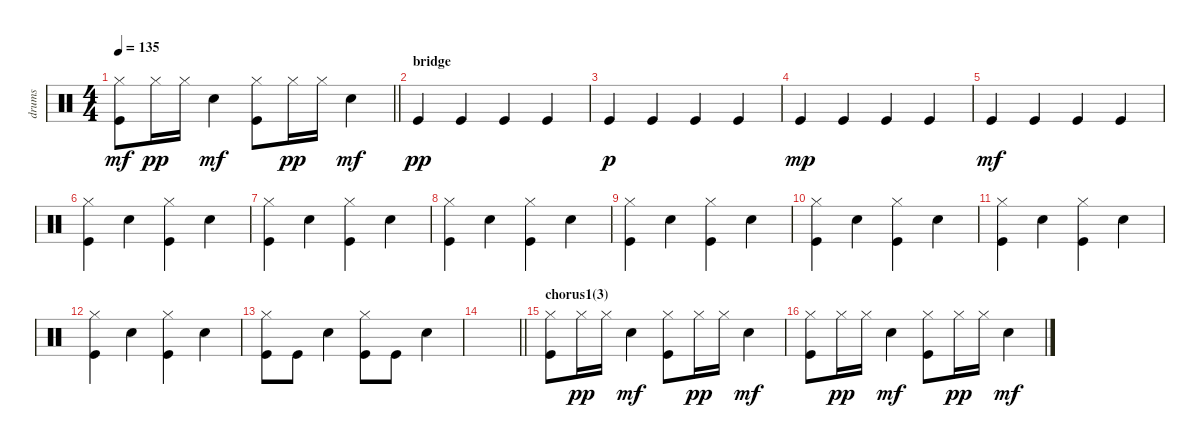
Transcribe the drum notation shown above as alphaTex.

\track ("drums" "drums") {instrument percussion}
\staff {score}
\articulation defaults
\ts (4 4)
\tempo 135
\clef neutral
\barLineRight lightlight
\ks c
("Hi-Hat (closed)" "Kick (hit)").8{dy mf} "Hi-Hat (closed)".16{dy pp} "Hi-Hat (closed)".16 "Snare (hit) 2".4{dy mf} ("Hi-Hat (closed)" "Kick (hit)").8 "Hi-Hat (closed)".16{dy pp} "Hi-Hat (closed)".16 "Snare (hit) 2".4{dy mf} |
\section ("" "bridge")
"Kick (hit)".4{dy pp} "Kick (hit)".4 "Kick (hit)".4 "Kick (hit)".4 |
"Kick (hit)".4{dy p} "Kick (hit)".4 "Kick (hit)".4 "Kick (hit)".4 |
"Kick (hit)".4{dy mp} "Kick (hit)".4 "Kick (hit)".4 "Kick (hit)".4 |
"Kick (hit)".4{dy mf} "Kick (hit)".4 "Kick (hit)".4 "Kick (hit)".4 |
("Hi-Hat (closed)" "Kick (hit)").4 "Snare (hit) 2".4 ("Hi-Hat (closed)" "Kick (hit)").4 "Snare (hit) 2".4 |
("Hi-Hat (closed)" "Kick (hit)").4 "Snare (hit) 2".4 ("Hi-Hat (closed)" "Kick (hit)").4 "Snare (hit) 2".4 |
("Hi-Hat (closed)" "Kick (hit)").4 "Snare (hit) 2".4 ("Hi-Hat (closed)" "Kick (hit)").4 "Snare (hit) 2".4 |
("Hi-Hat (closed)" "Kick (hit)").4 "Snare (hit) 2".4 ("Hi-Hat (closed)" "Kick (hit)").4 "Snare (hit) 2".4 |
("Hi-Hat (closed)" "Kick (hit)").4 "Snare (hit) 2".4 ("Hi-Hat (closed)" "Kick (hit)").4 "Snare (hit) 2".4 |
("Hi-Hat (closed)" "Kick (hit)").4 "Snare (hit) 2".4 ("Hi-Hat (closed)" "Kick (hit)").4 "Snare (hit) 2".4 |
("Hi-Hat (closed)" "Kick (hit)").4 "Snare (hit) 2".4 ("Hi-Hat (closed)" "Kick (hit)").4 "Snare (hit) 2".4 |
("Hi-Hat (closed)" "Kick (hit)").8 "Kick (hit)".8 "Snare (hit) 2".4 ("Hi-Hat (closed)" "Kick (hit)").8 "Kick (hit)".8 "Snare (hit) 2".4 |
\barLineRight lightlight
|
\section ("" "chorus1(3)")
("Hi-Hat (closed)" "Kick (hit)").8 "Hi-Hat (closed)".16{dy pp} "Hi-Hat (closed)".16 "Snare (hit) 2".4{dy mf} ("Hi-Hat (closed)" "Kick (hit)").8 "Hi-Hat (closed)".16{dy pp} "Hi-Hat (closed)".16 "Snare (hit) 2".4{dy mf} |
("Hi-Hat (closed)" "Kick (hit)").8 "Hi-Hat (closed)".16{dy pp} "Hi-Hat (closed)".16 "Snare (hit) 2".4{dy mf} ("Hi-Hat (closed)" "Kick (hit)").8 "Hi-Hat (closed)".16{dy pp} "Hi-Hat (closed)".16 "Snare (hit) 2".4{dy mf}
